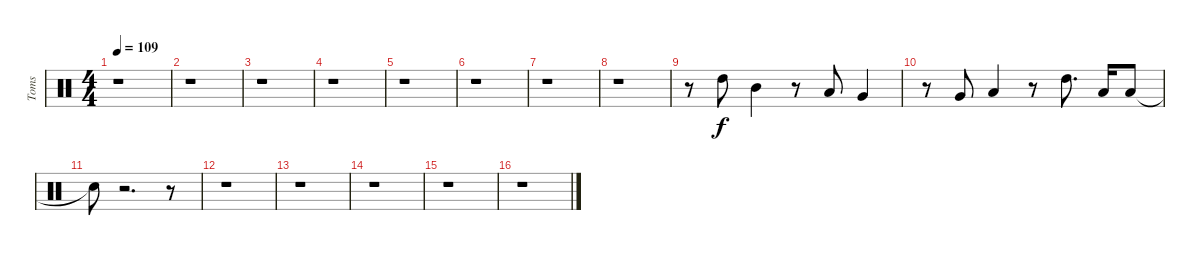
\track ("Toms" "Toms") {instrument percussion}
\staff {score}
\articulation defaults
\ts (4 4)
\tempo 109
\clef neutral
\ks c
r.1{dy f} |
r.1 |
r.1 |
r.1 |
r.1 |
r.1 |
r.1 |
r.1 |
r.8 "High Tom (hit)".8 "Mid Tom (hit)".4 r.8 "Low Tom (hit)".8 "Very Low Tom (hit)".4 |
r.8 "Very Low Tom (hit)".8 "Low Tom (hit)".4 r.8 "High Tom (hit)".8{d} "Low Tom (hit)".16 "Low Floor Tom (hit)".8 |
"Snare (hit)"{t}.8 r.2{d} r.8 |
r.1 |
r.1 |
r.1 |
r.1 |
r.1
